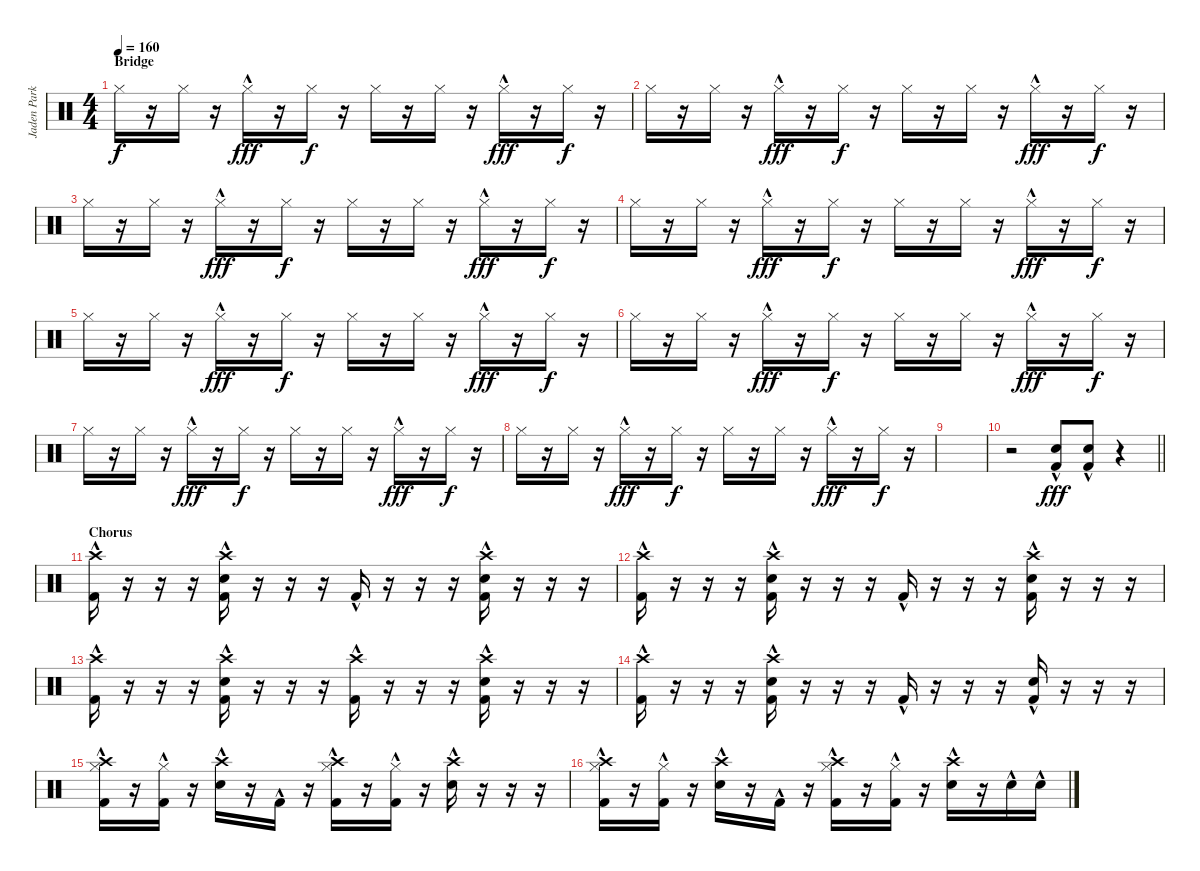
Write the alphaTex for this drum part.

\track ("Jaden Parkes" "Jaden Park") {instrument percussion}
\staff {score}
\articulation defaults
\ts (4 4)
\section ("" "Bridge")
\tempo 160
\clef neutral
\ks c "Hi-Hat (closed)".16{dy f volume 6}
r.16 "Hi-Hat (closed)".16 r.16 "Hi-Hat (closed)"{hac}.16{dy fff} r.16 "Hi-Hat (closed)".16{dy f} r.16 "Hi-Hat (closed)".16 r.16 "Hi-Hat (closed)".16 r.16 "Hi-Hat (closed)"{hac}.16{dy fff} r.16 "Hi-Hat (closed)".16{dy f} r.16 |
"Hi-Hat (closed)".16 r.16 "Hi-Hat (closed)".16 r.16 "Hi-Hat (closed)"{hac}.16{dy fff} r.16 "Hi-Hat (closed)".16{dy f} r.16 "Hi-Hat (closed)".16 r.16 "Hi-Hat (closed)".16 r.16 "Hi-Hat (closed)"{hac}.16{dy fff} r.16 "Hi-Hat (closed)".16{dy f} r.16 |
"Hi-Hat (closed)".16 r.16 "Hi-Hat (closed)".16 r.16 "Hi-Hat (closed)"{hac}.16{dy fff} r.16 "Hi-Hat (closed)".16{dy f} r.16 "Hi-Hat (closed)".16 r.16 "Hi-Hat (closed)".16 r.16 "Hi-Hat (closed)"{hac}.16{dy fff} r.16 "Hi-Hat (closed)".16{dy f} r.16 |
"Hi-Hat (closed)".16 r.16 "Hi-Hat (closed)".16 r.16 "Hi-Hat (closed)"{hac}.16{dy fff} r.16 "Hi-Hat (closed)".16{dy f} r.16 "Hi-Hat (closed)".16 r.16 "Hi-Hat (closed)".16 r.16 "Hi-Hat (closed)"{hac}.16{dy fff} r.16 "Hi-Hat (closed)".16{dy f} r.16 |
"Hi-Hat (closed)".16 r.16 "Hi-Hat (closed)".16 r.16 "Hi-Hat (closed)"{hac}.16{dy fff} r.16 "Hi-Hat (closed)".16{dy f} r.16 "Hi-Hat (closed)".16 r.16 "Hi-Hat (closed)".16 r.16 "Hi-Hat (closed)"{hac}.16{dy fff} r.16 "Hi-Hat (closed)".16{dy f} r.16 |
"Hi-Hat (closed)".16 r.16 "Hi-Hat (closed)".16 r.16 "Hi-Hat (closed)"{hac}.16{dy fff} r.16 "Hi-Hat (closed)".16{dy f} r.16 "Hi-Hat (closed)".16 r.16 "Hi-Hat (closed)".16 r.16 "Hi-Hat (closed)"{hac}.16{dy fff} r.16 "Hi-Hat (closed)".16{dy f} r.16 |
"Hi-Hat (closed)".16 r.16 "Hi-Hat (closed)".16 r.16 "Hi-Hat (closed)"{hac}.16{dy fff} r.16 "Hi-Hat (closed)".16{dy f} r.16 "Hi-Hat (closed)".16 r.16 "Hi-Hat (closed)".16 r.16 "Hi-Hat (closed)"{hac}.16{dy fff} r.16 "Hi-Hat (closed)".16{dy f} r.16 |
"Hi-Hat (closed)".16 r.16 "Hi-Hat (closed)".16 r.16 "Hi-Hat (closed)"{hac}.16{dy fff} r.16 "Hi-Hat (closed)".16{dy f} r.16 "Hi-Hat (closed)".16 r.16 "Hi-Hat (closed)".16 r.16 "Hi-Hat (closed)"{hac}.16{dy fff} r.16 "Hi-Hat (closed)".16{dy f} r.16 |
|
\barLineRight lightlight
r.2 ("Electric Snare (hit)"{hac} "Kick (hit) 2"{hac}).8{dy fff} ("Electric Snare (hit)"{hac} "Kick (hit) 2"{hac}).8 r.4 |
\section ("" "Chorus")
("Crash high (hit)" "Kick (hit) 2"{hac}).16 r.16 r.16 r.16 ("Crash high (hit)"{hac} "Electric Snare (hit)" "Kick (hit) 2"{hac}).16 r.16 r.16 r.16 "Kick (hit) 2"{hac}.16 r.16 r.16 r.16 ("Crash high (hit)"{hac} "Electric Snare (hit)" "Kick (hit) 2"{hac}).16 r.16 r.16 r.16 |
("Crash high (hit)" "Kick (hit) 2"{hac}).16 r.16 r.16 r.16 ("Crash high (hit)"{hac} "Electric Snare (hit)" "Kick (hit) 2"{hac}).16 r.16 r.16 r.16 "Kick (hit) 2"{hac}.16 r.16 r.16 r.16 ("Crash high (hit)"{hac} "Electric Snare (hit)" "Kick (hit) 2"{hac}).16 r.16 r.16 r.16 |
("Crash high (hit)" "Kick (hit) 2"{hac}).16 r.16 r.16 r.16 ("Crash high (hit)"{hac} "Electric Snare (hit)" "Kick (hit) 2"{hac}).16 r.16 r.16 r.16 ("Crash high (hit)" "Kick (hit) 2"{hac}).16 r.16 r.16 r.16 ("Crash high (hit)"{hac} "Electric Snare (hit)" "Kick (hit) 2"{hac}).16 r.16 r.16 r.16 |
("Crash high (hit)" "Kick (hit) 2"{hac}).16 r.16 r.16 r.16 ("Crash high (hit)"{hac} "Electric Snare (hit)" "Kick (hit) 2"{hac}).16 r.16 r.16 r.16 "Kick (hit) 2"{hac}.16 r.16 r.16 r.16 ("Electric Snare (hit)" "Kick (hit) 2"{hac}).16 r.16 r.16 r.16 |
("Hi-Hat (closed)"{hac} "Crash high (hit)" "Kick (hit) 2"{hac}).16 r.16 ("Hi-Hat (closed)"{hac} "Kick (hit) 2"{hac}).16 r.16 ("Crash high (hit)"{hac} "Electric Snare (hit)"{hac}).16 r.16 "Kick (hit) 2"{hac}.16 r.16 ("Hi-Hat (closed)"{hac} "Crash high (hit)" "Kick (hit) 2"{hac}).16 r.16 ("Hi-Hat (closed)"{hac} "Kick (hit) 2"{hac}).16 r.16 ("Crash high (hit)"{hac} "Electric Snare (hit)"{hac}).16 r.16 r.16 r.16 |
("Hi-Hat (closed)"{hac} "Crash high (hit)" "Kick (hit) 2"{hac}).16 r.16 ("Hi-Hat (closed)"{hac} "Kick (hit) 2"{hac}).16 r.16 ("Crash high (hit)"{hac} "Electric Snare (hit)"{hac}).16 r.16 "Kick (hit) 2"{hac}.16 r.16 ("Hi-Hat (closed)"{hac} "Crash high (hit)" "Kick (hit) 2"{hac}).16 r.16 ("Hi-Hat (closed)"{hac} "Kick (hit) 2"{hac}).16 r.16 ("Crash high (hit)"{hac} "Electric Snare (hit)"{hac}).16 r.16 "Electric Snare (hit)"{hac}.16 "Electric Snare (hit)"{hac}.16
